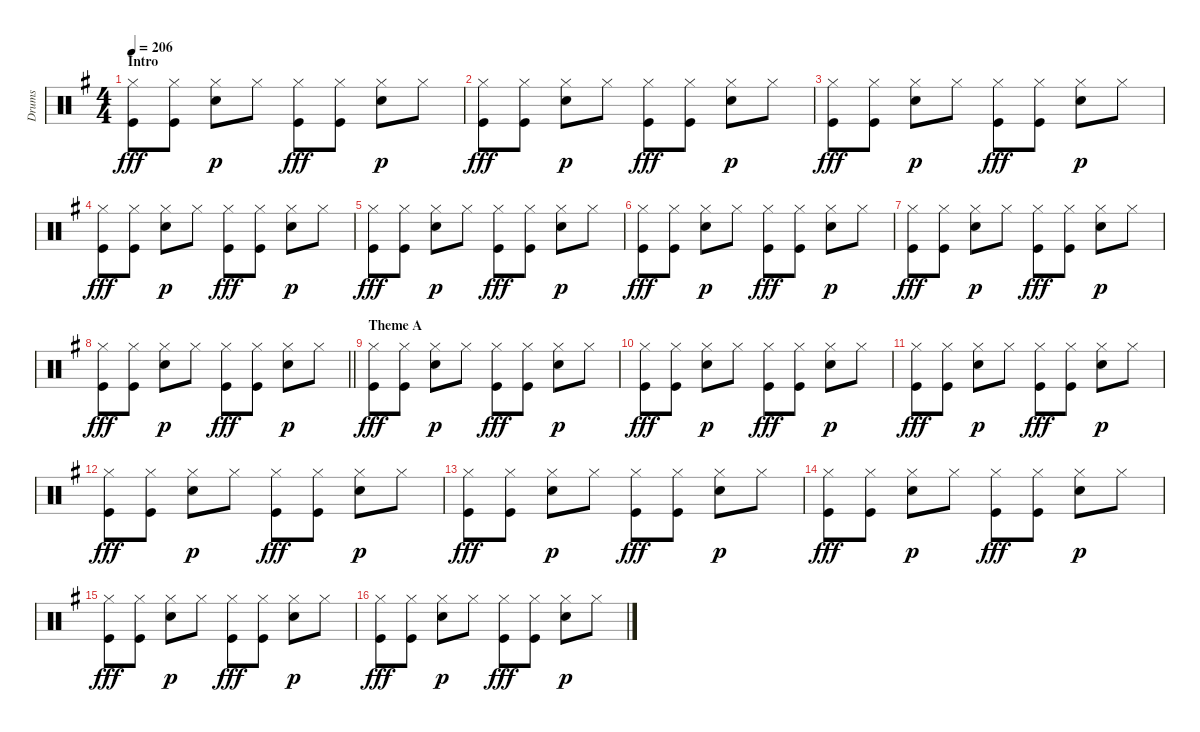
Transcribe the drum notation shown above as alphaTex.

\track ("Drums" "Drums") {instrument percussion}
\staff {score}
\articulation defaults
\ts (4 4)
\section ("" "Intro")
\tempo 206
\clef neutral
\ks g
("Hi-Hat (closed)" "Kick (hit)").8{dy fff} ("Hi-Hat (closed)" "Kick (hit)").8 ("Hi-Hat (closed)" "Snare (hit) 2").8{dy p} "Hi-Hat (closed)".8 ("Hi-Hat (closed)" "Kick (hit)").8{dy fff} ("Hi-Hat (closed)" "Kick (hit)").8 ("Hi-Hat (closed)" "Snare (hit) 2").8{dy p} "Hi-Hat (closed)".8 |
("Hi-Hat (closed)" "Kick (hit)").8{dy fff} ("Hi-Hat (closed)" "Kick (hit)").8 ("Hi-Hat (closed)" "Snare (hit) 2").8{dy p} "Hi-Hat (closed)".8 ("Hi-Hat (closed)" "Kick (hit)").8{dy fff} ("Hi-Hat (closed)" "Kick (hit)").8 ("Hi-Hat (closed)" "Snare (hit) 2").8{dy p} "Hi-Hat (closed)".8 |
("Hi-Hat (closed)" "Kick (hit)").8{dy fff} ("Hi-Hat (closed)" "Kick (hit)").8 ("Hi-Hat (closed)" "Snare (hit) 2").8{dy p} "Hi-Hat (closed)".8 ("Hi-Hat (closed)" "Kick (hit)").8{dy fff} ("Hi-Hat (closed)" "Kick (hit)").8 ("Hi-Hat (closed)" "Snare (hit) 2").8{dy p} "Hi-Hat (closed)".8 |
("Hi-Hat (closed)" "Kick (hit)").8{dy fff} ("Hi-Hat (closed)" "Kick (hit)").8 ("Hi-Hat (closed)" "Snare (hit) 2").8{dy p} "Hi-Hat (closed)".8 ("Hi-Hat (closed)" "Kick (hit)").8{dy fff} ("Hi-Hat (closed)" "Kick (hit)").8 ("Hi-Hat (closed)" "Snare (hit) 2").8{dy p} "Hi-Hat (closed)".8 |
("Hi-Hat (closed)" "Kick (hit)").8{dy fff} ("Hi-Hat (closed)" "Kick (hit)").8 ("Hi-Hat (closed)" "Snare (hit) 2").8{dy p} "Hi-Hat (closed)".8 ("Hi-Hat (closed)" "Kick (hit)").8{dy fff} ("Hi-Hat (closed)" "Kick (hit)").8 ("Hi-Hat (closed)" "Snare (hit) 2").8{dy p} "Hi-Hat (closed)".8 |
("Hi-Hat (closed)" "Kick (hit)").8{dy fff} ("Hi-Hat (closed)" "Kick (hit)").8 ("Hi-Hat (closed)" "Snare (hit) 2").8{dy p} "Hi-Hat (closed)".8 ("Hi-Hat (closed)" "Kick (hit)").8{dy fff} ("Hi-Hat (closed)" "Kick (hit)").8 ("Hi-Hat (closed)" "Snare (hit) 2").8{dy p} "Hi-Hat (closed)".8 |
("Hi-Hat (closed)" "Kick (hit)").8{dy fff} ("Hi-Hat (closed)" "Kick (hit)").8 ("Hi-Hat (closed)" "Snare (hit) 2").8{dy p} "Hi-Hat (closed)".8 ("Hi-Hat (closed)" "Kick (hit)").8{dy fff} ("Hi-Hat (closed)" "Kick (hit)").8 ("Hi-Hat (closed)" "Snare (hit) 2").8{dy p} "Hi-Hat (closed)".8 |
\barLineRight lightlight
("Hi-Hat (closed)" "Kick (hit)").8{dy fff} ("Hi-Hat (closed)" "Kick (hit)").8 ("Hi-Hat (closed)" "Snare (hit) 2").8{dy p} "Hi-Hat (closed)".8 ("Hi-Hat (closed)" "Kick (hit)").8{dy fff} ("Hi-Hat (closed)" "Kick (hit)").8 ("Hi-Hat (closed)" "Snare (hit) 2").8{dy p} "Hi-Hat (closed)".8 |
\section ("" "Theme A")
("Hi-Hat (closed)" "Kick (hit)").8{dy fff} ("Hi-Hat (closed)" "Kick (hit)").8 ("Hi-Hat (closed)" "Snare (hit) 2").8{dy p} "Hi-Hat (closed)".8 ("Hi-Hat (closed)" "Kick (hit)").8{dy fff} ("Hi-Hat (closed)" "Kick (hit)").8 ("Hi-Hat (closed)" "Snare (hit) 2").8{dy p} "Hi-Hat (closed)".8 |
("Hi-Hat (closed)" "Kick (hit)").8{dy fff} ("Hi-Hat (closed)" "Kick (hit)").8 ("Hi-Hat (closed)" "Snare (hit) 2").8{dy p} "Hi-Hat (closed)".8 ("Hi-Hat (closed)" "Kick (hit)").8{dy fff} ("Hi-Hat (closed)" "Kick (hit)").8 ("Hi-Hat (closed)" "Snare (hit) 2").8{dy p} "Hi-Hat (closed)".8 |
("Hi-Hat (closed)" "Kick (hit)").8{dy fff} ("Hi-Hat (closed)" "Kick (hit)").8 ("Hi-Hat (closed)" "Snare (hit) 2").8{dy p} "Hi-Hat (closed)".8 ("Hi-Hat (closed)" "Kick (hit)").8{dy fff} ("Hi-Hat (closed)" "Kick (hit)").8 ("Hi-Hat (closed)" "Snare (hit) 2").8{dy p} "Hi-Hat (closed)".8 |
("Hi-Hat (closed)" "Kick (hit)").8{dy fff} ("Hi-Hat (closed)" "Kick (hit)").8 ("Hi-Hat (closed)" "Snare (hit) 2").8{dy p} "Hi-Hat (closed)".8 ("Hi-Hat (closed)" "Kick (hit)").8{dy fff} ("Hi-Hat (closed)" "Kick (hit)").8 ("Hi-Hat (closed)" "Snare (hit) 2").8{dy p} "Hi-Hat (closed)".8 |
("Hi-Hat (closed)" "Kick (hit)").8{dy fff} ("Hi-Hat (closed)" "Kick (hit)").8 ("Hi-Hat (closed)" "Snare (hit) 2").8{dy p} "Hi-Hat (closed)".8 ("Hi-Hat (closed)" "Kick (hit)").8{dy fff} ("Hi-Hat (closed)" "Kick (hit)").8 ("Hi-Hat (closed)" "Snare (hit) 2").8{dy p} "Hi-Hat (closed)".8 |
("Hi-Hat (closed)" "Kick (hit)").8{dy fff} ("Hi-Hat (closed)" "Kick (hit)").8 ("Hi-Hat (closed)" "Snare (hit) 2").8{dy p} "Hi-Hat (closed)".8 ("Hi-Hat (closed)" "Kick (hit)").8{dy fff} ("Hi-Hat (closed)" "Kick (hit)").8 ("Hi-Hat (closed)" "Snare (hit) 2").8{dy p} "Hi-Hat (closed)".8 |
("Hi-Hat (closed)" "Kick (hit)").8{dy fff} ("Hi-Hat (closed)" "Kick (hit)").8 ("Hi-Hat (closed)" "Snare (hit) 2").8{dy p} "Hi-Hat (closed)".8 ("Hi-Hat (closed)" "Kick (hit)").8{dy fff} ("Hi-Hat (closed)" "Kick (hit)").8 ("Hi-Hat (closed)" "Snare (hit) 2").8{dy p} "Hi-Hat (closed)".8 |
("Hi-Hat (closed)" "Kick (hit)").8{dy fff} ("Hi-Hat (closed)" "Kick (hit)").8 ("Hi-Hat (closed)" "Snare (hit) 2").8{dy p} "Hi-Hat (closed)".8 ("Hi-Hat (closed)" "Kick (hit)").8{dy fff} ("Hi-Hat (closed)" "Kick (hit)").8 ("Hi-Hat (closed)" "Snare (hit) 2").8{dy p} "Hi-Hat (closed)".8
